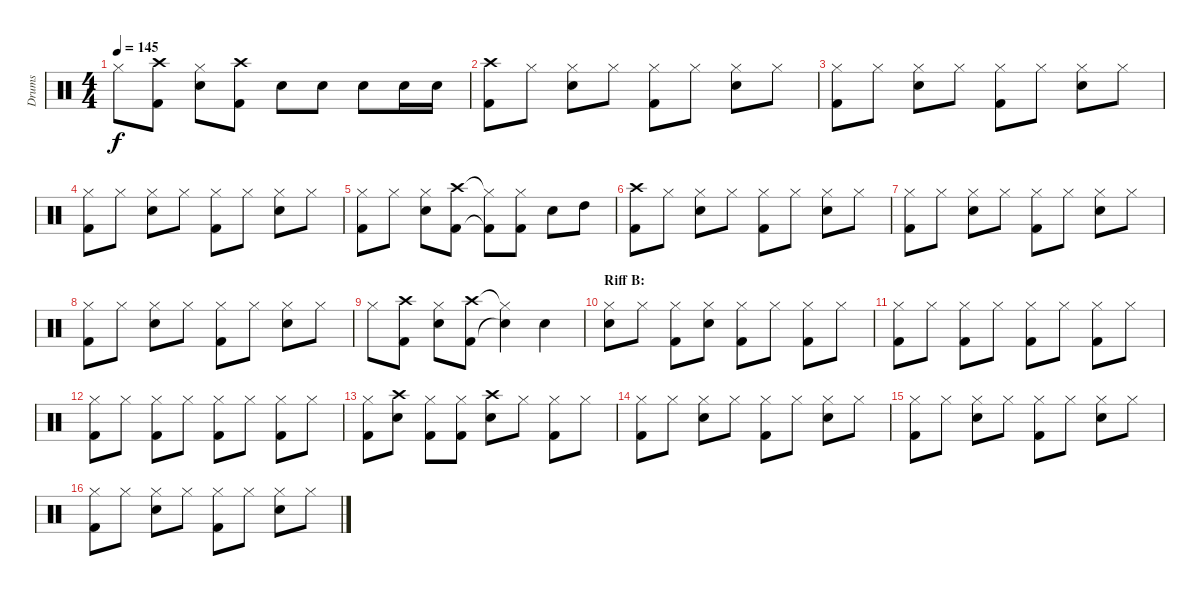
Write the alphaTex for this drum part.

\track ("Drums" "Drums") {instrument percussion}
\staff {score}
\articulation defaults
\ts (4 4)
\tempo 145
\clef neutral
\ks c "Hi-Hat (closed)".8{dy f}
("Crash high (hit)" "Kick (hit) 2").8 ("Hi-Hat (closed)" "Electric Snare (hit)").8 ("Crash high (hit)" "Kick (hit) 2").8 "Electric Snare (hit)".8 "Electric Snare (hit)".8 "Electric Snare (hit)".8 "Electric Snare (hit)".16 "Electric Snare (hit)".16 |
("Crash high (hit)" "Kick (hit) 2").8 "Hi-Hat (closed)".8 ("Hi-Hat (closed)" "Electric Snare (hit)").8 "Hi-Hat (closed)".8 ("Hi-Hat (closed)" "Kick (hit) 2").8 "Hi-Hat (closed)".8 ("Hi-Hat (closed)" "Electric Snare (hit)").8 "Hi-Hat (closed)".8 |
("Hi-Hat (closed)" "Kick (hit) 2").8 "Hi-Hat (closed)".8 ("Hi-Hat (closed)" "Electric Snare (hit)").8 "Hi-Hat (closed)".8 ("Hi-Hat (closed)" "Kick (hit) 2").8 "Hi-Hat (closed)".8 ("Hi-Hat (closed)" "Electric Snare (hit)").8 "Hi-Hat (closed)".8 |
("Hi-Hat (closed)" "Kick (hit) 2").8 "Hi-Hat (closed)".8 ("Hi-Hat (closed)" "Electric Snare (hit)").8 "Hi-Hat (closed)".8 ("Hi-Hat (closed)" "Kick (hit) 2").8 "Hi-Hat (closed)".8 ("Hi-Hat (closed)" "Electric Snare (hit)").8 "Hi-Hat (closed)".8 |
("Hi-Hat (closed)" "Kick (hit) 2").8 "Hi-Hat (closed)".8 ("Hi-Hat (closed)" "Electric Snare (hit)").8 ("Crash high (hit)" "Kick (hit) 2").8 ("Hi-Hat (closed)"{t} "Kick (hit) 2"{t}).8 ("Hi-Hat (closed)" "Kick (hit) 2").8 "Electric Snare (hit)".8 "High Tom (hit)".8 |
("Crash high (hit)" "Kick (hit) 2").8 "Hi-Hat (closed)".8 ("Hi-Hat (closed)" "Electric Snare (hit)").8 "Hi-Hat (closed)".8 ("Hi-Hat (closed)" "Kick (hit) 2").8 "Hi-Hat (closed)".8 ("Hi-Hat (closed)" "Electric Snare (hit)").8 "Hi-Hat (closed)".8 |
("Hi-Hat (closed)" "Kick (hit) 2").8 "Hi-Hat (closed)".8 ("Hi-Hat (closed)" "Electric Snare (hit)").8 "Hi-Hat (closed)".8 ("Hi-Hat (closed)" "Kick (hit) 2").8 "Hi-Hat (closed)".8 ("Hi-Hat (closed)" "Electric Snare (hit)").8 "Hi-Hat (closed)".8 |
("Hi-Hat (closed)" "Kick (hit) 2").8 "Hi-Hat (closed)".8 ("Hi-Hat (closed)" "Electric Snare (hit)").8 "Hi-Hat (closed)".8 ("Hi-Hat (closed)" "Kick (hit) 2").8 "Hi-Hat (closed)".8 ("Hi-Hat (closed)" "Electric Snare (hit)").8 "Hi-Hat (closed)".8 |
"Hi-Hat (closed)".8 ("Crash high (hit)" "Kick (hit) 2").8 ("Hi-Hat (closed)" "Electric Snare (hit)").8 ("Crash high (hit)" "Kick (hit) 2").8 ("Hi-Hat (closed)"{t} "Snare (hit)"{t}).4 "Electric Snare (hit)".4 |
\section ("" "Riff B:")
("Hi-Hat (closed)" "Electric Snare (hit)").8 "Hi-Hat (closed)".8 ("Hi-Hat (closed)" "Kick (hit) 2").8 ("Hi-Hat (closed)" "Electric Snare (hit)").8 ("Hi-Hat (closed)" "Kick (hit) 2").8 "Hi-Hat (closed)".8 ("Hi-Hat (closed)" "Kick (hit) 2").8 "Hi-Hat (closed)".8 |
("Hi-Hat (closed)" "Kick (hit) 2").8 "Hi-Hat (closed)".8 ("Hi-Hat (closed)" "Kick (hit) 2").8 "Hi-Hat (closed)".8 ("Hi-Hat (closed)" "Kick (hit) 2").8 "Hi-Hat (closed)".8 ("Hi-Hat (closed)" "Kick (hit) 2").8 "Hi-Hat (closed)".8 |
("Hi-Hat (closed)" "Kick (hit) 2").8 "Hi-Hat (closed)".8 ("Hi-Hat (closed)" "Kick (hit) 2").8 "Hi-Hat (closed)".8 ("Hi-Hat (closed)" "Kick (hit) 2").8 "Hi-Hat (closed)".8 ("Hi-Hat (closed)" "Kick (hit) 2").8 "Hi-Hat (closed)".8 |
("Hi-Hat (closed)" "Kick (hit) 2").8 ("Crash high (hit)" "Electric Snare (hit)").8 ("Hi-Hat (closed)" "Kick (hit) 2").8 ("Hi-Hat (closed)" "Kick (hit) 2").8 ("Crash high (hit)" "Electric Snare (hit)").8 "Hi-Hat (closed)".8 ("Hi-Hat (closed)" "Kick (hit) 2").8 "Hi-Hat (closed)".8 |
("Hi-Hat (closed)" "Kick (hit) 2").8 "Hi-Hat (closed)".8 ("Hi-Hat (closed)" "Electric Snare (hit)").8 "Hi-Hat (closed)".8 ("Hi-Hat (closed)" "Kick (hit) 2").8 "Hi-Hat (closed)".8 ("Hi-Hat (closed)" "Electric Snare (hit)").8 "Hi-Hat (closed)".8 |
("Hi-Hat (closed)" "Kick (hit) 2").8 "Hi-Hat (closed)".8 ("Hi-Hat (closed)" "Electric Snare (hit)").8 "Hi-Hat (closed)".8 ("Hi-Hat (closed)" "Kick (hit) 2").8 "Hi-Hat (closed)".8 ("Hi-Hat (closed)" "Electric Snare (hit)").8 "Hi-Hat (closed)".8 |
("Hi-Hat (closed)" "Kick (hit) 2").8 "Hi-Hat (closed)".8 ("Hi-Hat (closed)" "Electric Snare (hit)").8 "Hi-Hat (closed)".8 ("Hi-Hat (closed)" "Kick (hit) 2").8 "Hi-Hat (closed)".8 ("Hi-Hat (closed)" "Electric Snare (hit)").8 "Hi-Hat (closed)".8
